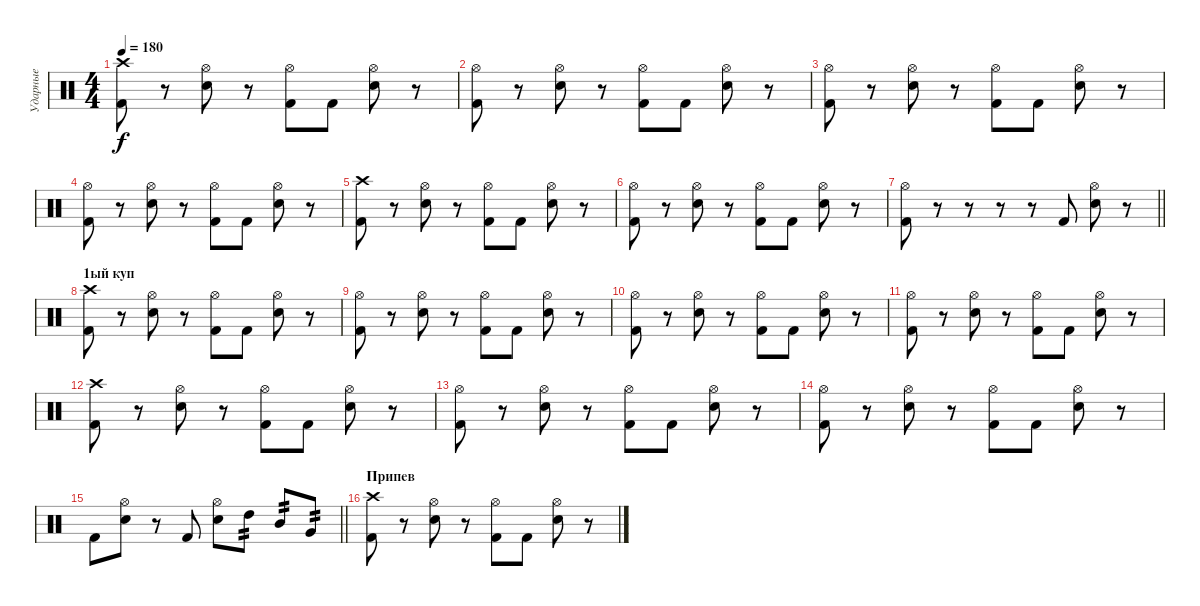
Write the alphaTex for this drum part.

\track ("Ударные" "Ударные") {instrument percussion}
\staff {score}
\articulation defaults
\ts (4 4)
\tempo 180
\clef neutral
\ks c
("Crash high (hit)" "Kick (hit) 2").8{dy f} r.8 ("Hi-Hat (open)" "Electric Snare (hit)").8 r.8 ("Hi-Hat (open)" "Kick (hit) 2").8 "Kick (hit) 2".8 ("Hi-Hat (open)" "Electric Snare (hit)").8 r.8 |
("Hi-Hat (open)" "Kick (hit) 2").8 r.8 ("Hi-Hat (open)" "Electric Snare (hit)").8 r.8 ("Hi-Hat (open)" "Kick (hit) 2").8 "Kick (hit) 2".8 ("Hi-Hat (open)" "Electric Snare (hit)").8 r.8 |
("Hi-Hat (open)" "Kick (hit) 2").8 r.8 ("Hi-Hat (open)" "Electric Snare (hit)").8 r.8 ("Hi-Hat (open)" "Kick (hit) 2").8 "Kick (hit) 2".8 ("Hi-Hat (open)" "Electric Snare (hit)").8 r.8 |
("Hi-Hat (open)" "Kick (hit) 2").8 r.8 ("Hi-Hat (open)" "Electric Snare (hit)").8 r.8 ("Hi-Hat (open)" "Kick (hit) 2").8 "Kick (hit) 2".8 ("Hi-Hat (open)" "Electric Snare (hit)").8 r.8 |
("Crash high (hit)" "Kick (hit) 2").8 r.8 ("Hi-Hat (open)" "Electric Snare (hit)").8 r.8 ("Hi-Hat (open)" "Kick (hit) 2").8 "Kick (hit) 2".8 ("Hi-Hat (open)" "Electric Snare (hit)").8 r.8 |
("Hi-Hat (open)" "Kick (hit) 2").8 r.8 ("Hi-Hat (open)" "Electric Snare (hit)").8 r.8 ("Hi-Hat (open)" "Kick (hit) 2").8 "Kick (hit) 2".8 ("Hi-Hat (open)" "Electric Snare (hit)").8 r.8 |
\barLineRight lightlight
("Hi-Hat (open)" "Kick (hit) 2").8 r.8 r.8 r.8 r.8 "Kick (hit) 2".8 ("Hi-Hat (open)" "Electric Snare (hit)").8 r.8 |
\section ("" "1ый куп")
("Crash high (hit)" "Kick (hit) 2").8 r.8 ("Hi-Hat (open)" "Electric Snare (hit)").8 r.8 ("Hi-Hat (open)" "Kick (hit) 2").8 "Kick (hit) 2".8 ("Hi-Hat (open)" "Electric Snare (hit)").8 r.8 |
("Hi-Hat (open)" "Kick (hit) 2").8 r.8 ("Hi-Hat (open)" "Electric Snare (hit)").8 r.8 ("Hi-Hat (open)" "Kick (hit) 2").8 "Kick (hit) 2".8 ("Hi-Hat (open)" "Electric Snare (hit)").8 r.8 |
("Hi-Hat (open)" "Kick (hit) 2").8 r.8 ("Hi-Hat (open)" "Electric Snare (hit)").8 r.8 ("Hi-Hat (open)" "Kick (hit) 2").8 "Kick (hit) 2".8 ("Hi-Hat (open)" "Electric Snare (hit)").8 r.8 |
("Hi-Hat (open)" "Kick (hit) 2").8 r.8 ("Hi-Hat (open)" "Electric Snare (hit)").8 r.8 ("Hi-Hat (open)" "Kick (hit) 2").8 "Kick (hit) 2".8 ("Hi-Hat (open)" "Electric Snare (hit)").8 r.8 |
("Crash high (hit)" "Kick (hit) 2").8 r.8 ("Hi-Hat (open)" "Electric Snare (hit)").8 r.8 ("Hi-Hat (open)" "Kick (hit) 2").8 "Kick (hit) 2".8 ("Hi-Hat (open)" "Electric Snare (hit)").8 r.8 |
("Hi-Hat (open)" "Kick (hit) 2").8 r.8 ("Hi-Hat (open)" "Electric Snare (hit)").8 r.8 ("Hi-Hat (open)" "Kick (hit) 2").8 "Kick (hit) 2".8 ("Hi-Hat (open)" "Electric Snare (hit)").8 r.8 |
("Hi-Hat (open)" "Kick (hit) 2").8 r.8 ("Hi-Hat (open)" "Electric Snare (hit)").8 r.8 ("Hi-Hat (open)" "Kick (hit) 2").8 "Kick (hit) 2".8 ("Hi-Hat (open)" "Electric Snare (hit)").8 r.8 |
\barLineRight lightlight "Kick (hit) 2".8
("Hi-Hat (open)" "Electric Snare (hit)").8 r.8 "Kick (hit) 2".8 ("Hi-Hat (open)" "Electric Snare (hit)").8 "High Tom (hit)".8{tp 2} "Mid Tom (hit)".8{tp 2} "Very Low Tom (hit)".8{tp 2} |
\section ("" "Припев")
("Crash high (hit)" "Kick (hit) 2").8 r.8 ("Hi-Hat (open)" "Electric Snare (hit)").8 r.8 ("Hi-Hat (open)" "Kick (hit) 2").8 "Kick (hit) 2".8 ("Hi-Hat (open)" "Electric Snare (hit)").8 r.8
